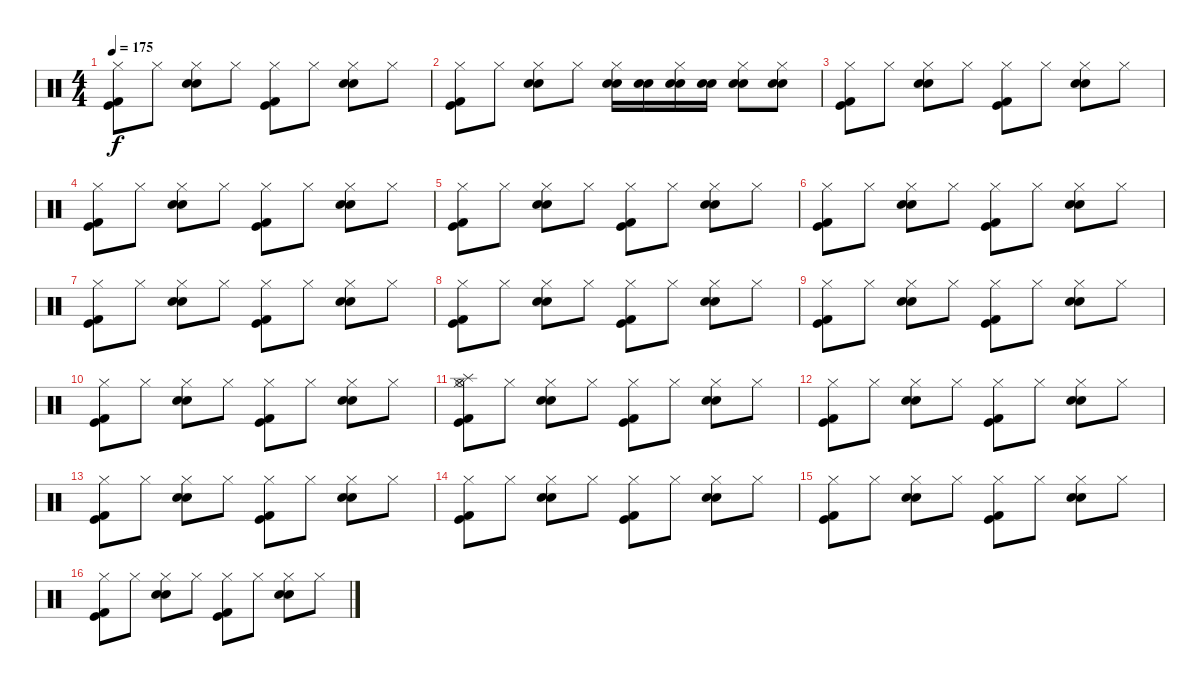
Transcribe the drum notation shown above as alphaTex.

\track "" {instrument percussion}
\staff {score}
\articulation defaults
\ts (4 4)
\tempo 175
\clef neutral
\ks c
("Hi-Hat (closed)" "Kick (hit)" "Kick (hit) 2").8{dy f} "Hi-Hat (closed)".8 ("Electric Snare (hit)" "Snare (hit) 2" "Hi-Hat (closed)").8 "Hi-Hat (closed)".8 ("Hi-Hat (closed)" "Kick (hit)" "Kick (hit) 2").8 "Hi-Hat (closed)".8 ("Electric Snare (hit)" "Snare (hit) 2" "Hi-Hat (closed)").8 "Hi-Hat (closed)".8 |
("Hi-Hat (closed)" "Kick (hit)" "Kick (hit) 2").8 "Hi-Hat (closed)".8 ("Electric Snare (hit)" "Snare (hit) 2" "Hi-Hat (closed)").8 "Hi-Hat (closed)".8 ("Hi-Hat (closed)" "Electric Snare (hit)" "Snare (hit) 2").16 ("Snare (hit) 2" "Electric Snare (hit)").16 ("Snare (hit) 2" "Electric Snare (hit)" "Hi-Hat (closed)").16 ("Snare (hit) 2" "Electric Snare (hit)").16 ("Hi-Hat (closed)" "Snare (hit) 2" "Electric Snare (hit)").8 ("Hi-Hat (closed)" "Electric Snare (hit)" "Snare (hit) 2").8 |
("Kick (hit) 2" "Kick (hit)" "Hi-Hat (closed)").8 "Hi-Hat (closed)".8 ("Electric Snare (hit)" "Snare (hit) 2" "Hi-Hat (closed)").8 "Hi-Hat (closed)".8 ("Hi-Hat (closed)" "Kick (hit)" "Kick (hit) 2").8 "Hi-Hat (closed)".8 ("Electric Snare (hit)" "Snare (hit) 2" "Hi-Hat (closed)").8 "Hi-Hat (closed)".8 |
("Hi-Hat (closed)" "Kick (hit)" "Kick (hit) 2").8 "Hi-Hat (closed)".8 ("Electric Snare (hit)" "Snare (hit) 2" "Hi-Hat (closed)").8 "Hi-Hat (closed)".8 ("Hi-Hat (closed)" "Kick (hit)" "Kick (hit) 2").8 "Hi-Hat (closed)".8 ("Electric Snare (hit)" "Snare (hit) 2" "Hi-Hat (closed)").8 "Hi-Hat (closed)".8 |
("Kick (hit) 2" "Kick (hit)" "Hi-Hat (closed)").8 "Hi-Hat (closed)".8 ("Electric Snare (hit)" "Snare (hit) 2" "Hi-Hat (closed)").8 "Hi-Hat (closed)".8 ("Hi-Hat (closed)" "Kick (hit)" "Kick (hit) 2").8 "Hi-Hat (closed)".8 ("Electric Snare (hit)" "Snare (hit) 2" "Hi-Hat (closed)").8 "Hi-Hat (closed)".8 |
("Hi-Hat (closed)" "Kick (hit)" "Kick (hit) 2").8 "Hi-Hat (closed)".8 ("Electric Snare (hit)" "Snare (hit) 2" "Hi-Hat (closed)").8 "Hi-Hat (closed)".8 ("Hi-Hat (closed)" "Kick (hit)" "Kick (hit) 2").8 "Hi-Hat (closed)".8 ("Electric Snare (hit)" "Snare (hit) 2" "Hi-Hat (closed)").8 "Hi-Hat (closed)".8 |
("Hi-Hat (closed)" "Kick (hit)" "Kick (hit) 2").8 "Hi-Hat (closed)".8 ("Electric Snare (hit)" "Snare (hit) 2" "Hi-Hat (closed)").8 "Hi-Hat (closed)".8 ("Hi-Hat (closed)" "Kick (hit)" "Kick (hit) 2").8 "Hi-Hat (closed)".8 ("Electric Snare (hit)" "Snare (hit) 2" "Hi-Hat (closed)").8 "Hi-Hat (closed)".8 |
("Hi-Hat (closed)" "Kick (hit)" "Kick (hit) 2").8 "Hi-Hat (closed)".8 ("Electric Snare (hit)" "Snare (hit) 2" "Hi-Hat (closed)").8 "Hi-Hat (closed)".8 ("Hi-Hat (closed)" "Kick (hit)" "Kick (hit) 2").8 "Hi-Hat (closed)".8 ("Electric Snare (hit)" "Snare (hit) 2" "Hi-Hat (closed)").8 "Hi-Hat (closed)".8 |
("Hi-Hat (closed)" "Kick (hit)" "Kick (hit) 2").8 "Hi-Hat (closed)".8 ("Electric Snare (hit)" "Snare (hit) 2" "Hi-Hat (closed)").8 "Hi-Hat (closed)".8 ("Hi-Hat (closed)" "Kick (hit)" "Kick (hit) 2").8 "Hi-Hat (closed)".8 ("Electric Snare (hit)" "Snare (hit) 2" "Hi-Hat (closed)").8 "Hi-Hat (closed)".8 |
("Hi-Hat (closed)" "Kick (hit)" "Kick (hit) 2").8 "Hi-Hat (closed)".8 ("Electric Snare (hit)" "Snare (hit) 2" "Hi-Hat (closed)").8 "Hi-Hat (closed)".8 ("Hi-Hat (closed)" "Kick (hit)" "Kick (hit) 2").8 "Hi-Hat (closed)".8 ("Electric Snare (hit)" "Snare (hit) 2" "Hi-Hat (closed)").8 "Hi-Hat (closed)".8 |
("Hi-Hat (closed)" "Kick (hit)" "Kick (hit) 2" "Hi-Hat (open)" "Splash (hit)").8 "Hi-Hat (closed)".8 ("Electric Snare (hit)" "Snare (hit) 2" "Hi-Hat (closed)").8 "Hi-Hat (closed)".8 ("Hi-Hat (closed)" "Kick (hit)" "Kick (hit) 2").8 "Hi-Hat (closed)".8 ("Electric Snare (hit)" "Snare (hit) 2" "Hi-Hat (closed)").8 "Hi-Hat (closed)".8 |
("Hi-Hat (closed)" "Kick (hit)" "Kick (hit) 2").8 "Hi-Hat (closed)".8 ("Electric Snare (hit)" "Snare (hit) 2" "Hi-Hat (closed)").8 "Hi-Hat (closed)".8 ("Hi-Hat (closed)" "Kick (hit)" "Kick (hit) 2").8 "Hi-Hat (closed)".8 ("Electric Snare (hit)" "Snare (hit) 2" "Hi-Hat (closed)").8 "Hi-Hat (closed)".8 |
("Hi-Hat (closed)" "Kick (hit)" "Kick (hit) 2").8 "Hi-Hat (closed)".8 ("Electric Snare (hit)" "Snare (hit) 2" "Hi-Hat (closed)").8 "Hi-Hat (closed)".8 ("Hi-Hat (closed)" "Kick (hit)" "Kick (hit) 2").8 "Hi-Hat (closed)".8 ("Electric Snare (hit)" "Snare (hit) 2" "Hi-Hat (closed)").8 "Hi-Hat (closed)".8 |
("Hi-Hat (closed)" "Kick (hit)" "Kick (hit) 2").8 "Hi-Hat (closed)".8 ("Electric Snare (hit)" "Snare (hit) 2" "Hi-Hat (closed)").8 "Hi-Hat (closed)".8 ("Hi-Hat (closed)" "Kick (hit)" "Kick (hit) 2").8 "Hi-Hat (closed)".8 ("Electric Snare (hit)" "Snare (hit) 2" "Hi-Hat (closed)").8 "Hi-Hat (closed)".8 |
("Kick (hit) 2" "Kick (hit)" "Hi-Hat (closed)").8 "Hi-Hat (closed)".8 ("Electric Snare (hit)" "Snare (hit) 2" "Hi-Hat (closed)").8 "Hi-Hat (closed)".8 ("Hi-Hat (closed)" "Kick (hit)" "Kick (hit) 2").8 "Hi-Hat (closed)".8 ("Electric Snare (hit)" "Snare (hit) 2" "Hi-Hat (closed)").8 "Hi-Hat (closed)".8 |
("Hi-Hat (closed)" "Kick (hit)" "Kick (hit) 2").8 "Hi-Hat (closed)".8 ("Electric Snare (hit)" "Snare (hit) 2" "Hi-Hat (closed)").8 "Hi-Hat (closed)".8 ("Hi-Hat (closed)" "Kick (hit)" "Kick (hit) 2").8 "Hi-Hat (closed)".8 ("Electric Snare (hit)" "Snare (hit) 2" "Hi-Hat (closed)").8 "Hi-Hat (closed)".8
